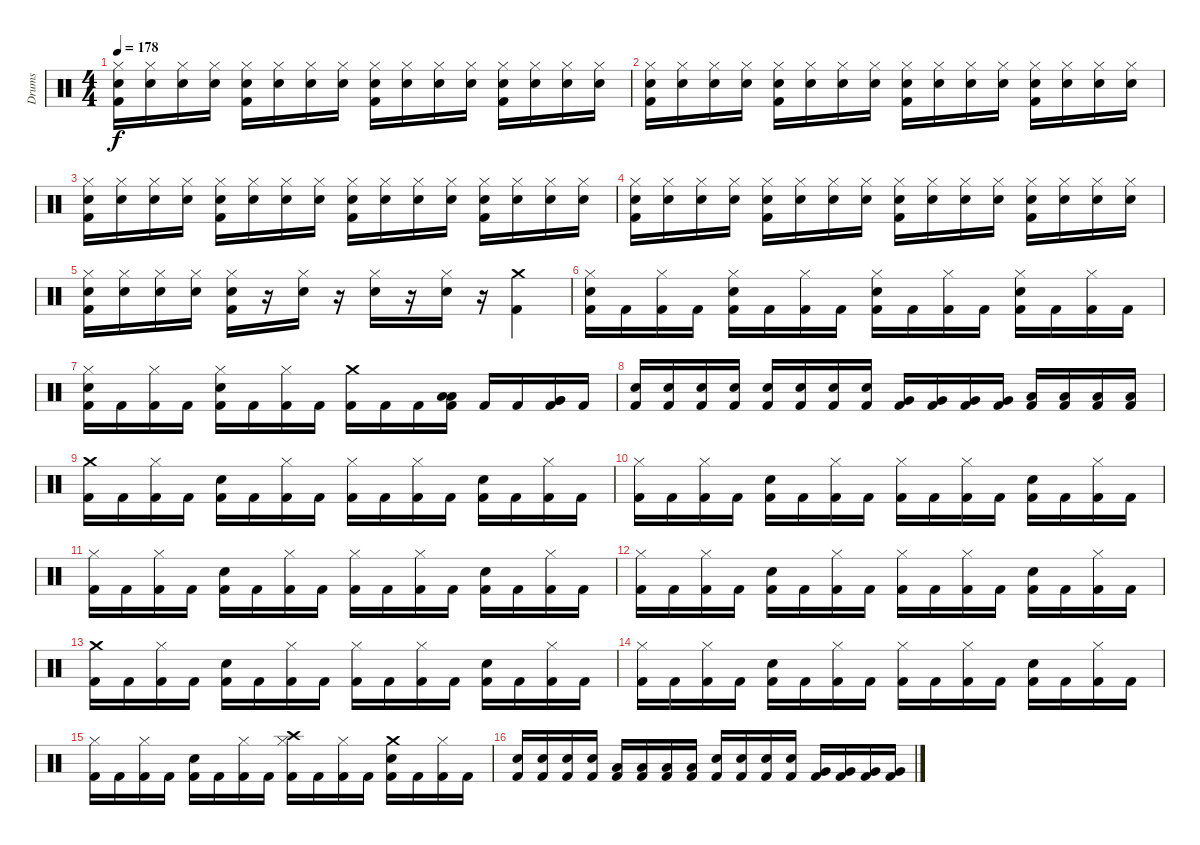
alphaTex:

\track ("Drums" "Drums") {instrument percussion}
\staff {score}
\articulation defaults
\ts (4 4)
\tempo 178
\clef neutral
\ks c
("Hi-Hat (closed)" "Electric Snare (hit)" "Kick (hit) 2").16{dy f} ("Hi-Hat (closed)" "Electric Snare (hit)").16 ("Hi-Hat (closed)" "Electric Snare (hit)").16 ("Hi-Hat (closed)" "Electric Snare (hit)").16 ("Hi-Hat (closed)" "Electric Snare (hit)" "Kick (hit) 2").16 ("Hi-Hat (closed)" "Electric Snare (hit)").16 ("Hi-Hat (closed)" "Electric Snare (hit)").16 ("Hi-Hat (closed)" "Electric Snare (hit)").16 ("Hi-Hat (closed)" "Electric Snare (hit)" "Kick (hit) 2").16 ("Hi-Hat (closed)" "Electric Snare (hit)").16 ("Hi-Hat (closed)" "Electric Snare (hit)").16 ("Hi-Hat (closed)" "Electric Snare (hit)").16 ("Hi-Hat (closed)" "Electric Snare (hit)" "Kick (hit) 2").16 ("Hi-Hat (closed)" "Electric Snare (hit)").16 ("Hi-Hat (closed)" "Electric Snare (hit)").16 ("Hi-Hat (closed)" "Electric Snare (hit)").16 |
("Hi-Hat (closed)" "Electric Snare (hit)" "Kick (hit) 2").16 ("Hi-Hat (closed)" "Electric Snare (hit)").16 ("Hi-Hat (closed)" "Electric Snare (hit)").16 ("Hi-Hat (closed)" "Electric Snare (hit)").16 ("Hi-Hat (closed)" "Electric Snare (hit)" "Kick (hit) 2").16 ("Hi-Hat (closed)" "Electric Snare (hit)").16 ("Hi-Hat (closed)" "Electric Snare (hit)").16 ("Hi-Hat (closed)" "Electric Snare (hit)").16 ("Hi-Hat (closed)" "Electric Snare (hit)" "Kick (hit) 2").16 ("Hi-Hat (closed)" "Electric Snare (hit)").16 ("Hi-Hat (closed)" "Electric Snare (hit)").16 ("Hi-Hat (closed)" "Electric Snare (hit)").16 ("Hi-Hat (closed)" "Electric Snare (hit)" "Kick (hit) 2").16 ("Hi-Hat (closed)" "Electric Snare (hit)").16 ("Hi-Hat (closed)" "Electric Snare (hit)").16 ("Hi-Hat (closed)" "Electric Snare (hit)").16 |
("Hi-Hat (closed)" "Electric Snare (hit)" "Kick (hit) 2").16 ("Hi-Hat (closed)" "Electric Snare (hit)").16 ("Hi-Hat (closed)" "Electric Snare (hit)").16 ("Hi-Hat (closed)" "Electric Snare (hit)").16 ("Hi-Hat (closed)" "Electric Snare (hit)" "Kick (hit) 2").16 ("Hi-Hat (closed)" "Electric Snare (hit)").16 ("Hi-Hat (closed)" "Electric Snare (hit)").16 ("Hi-Hat (closed)" "Electric Snare (hit)").16 ("Hi-Hat (closed)" "Electric Snare (hit)" "Kick (hit) 2").16 ("Hi-Hat (closed)" "Electric Snare (hit)").16 ("Hi-Hat (closed)" "Electric Snare (hit)").16 ("Hi-Hat (closed)" "Electric Snare (hit)").16 ("Hi-Hat (closed)" "Electric Snare (hit)" "Kick (hit) 2").16 ("Hi-Hat (closed)" "Electric Snare (hit)").16 ("Hi-Hat (closed)" "Electric Snare (hit)").16 ("Hi-Hat (closed)" "Electric Snare (hit)").16 |
("Hi-Hat (closed)" "Electric Snare (hit)" "Kick (hit) 2").16 ("Hi-Hat (closed)" "Electric Snare (hit)").16 ("Hi-Hat (closed)" "Electric Snare (hit)").16 ("Hi-Hat (closed)" "Electric Snare (hit)").16 ("Hi-Hat (closed)" "Electric Snare (hit)" "Kick (hit) 2").16 ("Hi-Hat (closed)" "Electric Snare (hit)").16 ("Hi-Hat (closed)" "Electric Snare (hit)").16 ("Hi-Hat (closed)" "Electric Snare (hit)").16 ("Hi-Hat (closed)" "Electric Snare (hit)" "Kick (hit) 2").16 ("Hi-Hat (closed)" "Electric Snare (hit)").16 ("Hi-Hat (closed)" "Electric Snare (hit)").16 ("Hi-Hat (closed)" "Electric Snare (hit)").16 ("Hi-Hat (closed)" "Electric Snare (hit)" "Kick (hit) 2").16 ("Hi-Hat (closed)" "Electric Snare (hit)").16 ("Hi-Hat (closed)" "Electric Snare (hit)").16 ("Hi-Hat (closed)" "Electric Snare (hit)").16 |
("Hi-Hat (closed)" "Electric Snare (hit)" "Kick (hit) 2").16 ("Hi-Hat (closed)" "Electric Snare (hit)").16 ("Hi-Hat (closed)" "Electric Snare (hit)").16 ("Hi-Hat (closed)" "Electric Snare (hit)").16 ("Hi-Hat (closed)" "Electric Snare (hit)" "Kick (hit) 2").16 r.16 ("Hi-Hat (closed)" "Electric Snare (hit)").16 r.16 ("Hi-Hat (closed)" "Electric Snare (hit)").16 r.16 ("Hi-Hat (closed)" "Electric Snare (hit)").16 r.16 ("Crash medium (hit)" "Kick (hit) 2").4 |
("Hi-Hat (closed)" "Electric Snare (hit)" "Kick (hit) 2").16 "Kick (hit) 2".16 ("Hi-Hat (closed)" "Kick (hit) 2").16 "Kick (hit) 2".16 ("Hi-Hat (closed)" "Electric Snare (hit)" "Kick (hit) 2").16 "Kick (hit) 2".16 ("Hi-Hat (closed)" "Kick (hit) 2").16 "Kick (hit) 2".16 ("Hi-Hat (closed)" "Electric Snare (hit)" "Kick (hit) 2").16 "Kick (hit) 2".16 ("Hi-Hat (closed)" "Kick (hit) 2").16 "Kick (hit) 2".16 ("Hi-Hat (closed)" "Electric Snare (hit)" "Kick (hit) 2").16 "Kick (hit) 2".16 ("Hi-Hat (closed)" "Kick (hit) 2").16 "Kick (hit) 2".16 |
("Hi-Hat (closed)" "Electric Snare (hit)" "Kick (hit) 2").16 "Kick (hit) 2".16 ("Hi-Hat (closed)" "Kick (hit) 2").16 "Kick (hit) 2".16 ("Hi-Hat (closed)" "Electric Snare (hit)" "Kick (hit) 2").16 "Kick (hit) 2".16 ("Hi-Hat (closed)" "Kick (hit) 2").16 "Kick (hit) 2".16 ("Crash medium (hit)" "Kick (hit) 2").16 "Kick (hit) 2".16 "Kick (hit) 2".16 ("Low Tom (hit)" "Low Tom (hit)" "Kick (hit) 2").16 "Kick (hit) 2".16 "Kick (hit) 2".16 ("Very Low Tom (hit)" "Very Low Tom (hit)" "Kick (hit) 2").16 "Kick (hit) 2".16 |
("Electric Snare (hit)" "Kick (hit) 2").16 ("Electric Snare (hit)" "Kick (hit) 2").16 ("Electric Snare (hit)" "Kick (hit) 2").16 ("Electric Snare (hit)" "Kick (hit) 2").16 ("Electric Snare (hit)" "Kick (hit) 2").16 ("Electric Snare (hit)" "Kick (hit) 2").16 ("Electric Snare (hit)" "Kick (hit) 2").16 ("Electric Snare (hit)" "Kick (hit) 2").16 ("Very Low Tom (hit)" "Kick (hit) 2").16 ("Very Low Tom (hit)" "Kick (hit) 2").16 ("Very Low Tom (hit)" "Kick (hit) 2").16 ("Very Low Tom (hit)" "Kick (hit) 2").16 ("Low Floor Tom (hit)" "Kick (hit) 2").16 ("Low Floor Tom (hit)" "Kick (hit) 2").16 ("Low Floor Tom (hit)" "Kick (hit) 2").16 ("Low Floor Tom (hit)" "Kick (hit) 2").16 |
("Crash medium (hit)" "Kick (hit) 2").16 "Kick (hit) 2".16 ("Hi-Hat (closed)" "Kick (hit) 2").16 "Kick (hit) 2".16 ("Electric Snare (hit)" "Kick (hit) 2").16 "Kick (hit) 2".16 ("Hi-Hat (closed)" "Kick (hit) 2").16 "Kick (hit) 2".16 ("Hi-Hat (closed)" "Kick (hit) 2").16 "Kick (hit) 2".16 ("Hi-Hat (closed)" "Kick (hit) 2").16 "Kick (hit) 2".16 ("Electric Snare (hit)" "Kick (hit) 2").16 "Kick (hit) 2".16 ("Hi-Hat (closed)" "Kick (hit) 2").16 "Kick (hit) 2".16 |
("Hi-Hat (closed)" "Kick (hit) 2").16 "Kick (hit) 2".16 ("Hi-Hat (closed)" "Kick (hit) 2").16 "Kick (hit) 2".16 ("Electric Snare (hit)" "Kick (hit) 2").16 "Kick (hit) 2".16 ("Hi-Hat (closed)" "Kick (hit) 2").16 "Kick (hit) 2".16 ("Hi-Hat (closed)" "Kick (hit) 2").16 "Kick (hit) 2".16 ("Hi-Hat (closed)" "Kick (hit) 2").16 "Kick (hit) 2".16 ("Electric Snare (hit)" "Kick (hit) 2").16 "Kick (hit) 2".16 ("Hi-Hat (closed)" "Kick (hit) 2").16 "Kick (hit) 2".16 |
("Hi-Hat (closed)" "Kick (hit) 2").16 "Kick (hit) 2".16 ("Hi-Hat (closed)" "Kick (hit) 2").16 "Kick (hit) 2".16 ("Electric Snare (hit)" "Kick (hit) 2").16 "Kick (hit) 2".16 ("Hi-Hat (closed)" "Kick (hit) 2").16 "Kick (hit) 2".16 ("Hi-Hat (closed)" "Kick (hit) 2").16 "Kick (hit) 2".16 ("Hi-Hat (closed)" "Kick (hit) 2").16 "Kick (hit) 2".16 ("Electric Snare (hit)" "Kick (hit) 2").16 "Kick (hit) 2".16 ("Hi-Hat (closed)" "Kick (hit) 2").16 "Kick (hit) 2".16 |
("Hi-Hat (closed)" "Kick (hit) 2").16 "Kick (hit) 2".16 ("Hi-Hat (closed)" "Kick (hit) 2").16 "Kick (hit) 2".16 ("Electric Snare (hit)" "Kick (hit) 2").16 "Kick (hit) 2".16 ("Hi-Hat (closed)" "Kick (hit) 2").16 "Kick (hit) 2".16 ("Hi-Hat (closed)" "Kick (hit) 2").16 "Kick (hit) 2".16 ("Hi-Hat (closed)" "Kick (hit) 2").16 "Kick (hit) 2".16 ("Electric Snare (hit)" "Kick (hit) 2").16 "Kick (hit) 2".16 ("Hi-Hat (closed)" "Kick (hit) 2").16 "Kick (hit) 2".16 |
("Crash medium (hit)" "Kick (hit) 2").16 "Kick (hit) 2".16 ("Hi-Hat (closed)" "Kick (hit) 2").16 "Kick (hit) 2".16 ("Electric Snare (hit)" "Kick (hit) 2").16 "Kick (hit) 2".16 ("Hi-Hat (closed)" "Kick (hit) 2").16 "Kick (hit) 2".16 ("Hi-Hat (closed)" "Kick (hit) 2").16 "Kick (hit) 2".16 ("Hi-Hat (closed)" "Kick (hit) 2").16 "Kick (hit) 2".16 ("Electric Snare (hit)" "Kick (hit) 2").16 "Kick (hit) 2".16 ("Hi-Hat (closed)" "Kick (hit) 2").16 "Kick (hit) 2".16 |
("Hi-Hat (closed)" "Kick (hit) 2").16 "Kick (hit) 2".16 ("Hi-Hat (closed)" "Kick (hit) 2").16 "Kick (hit) 2".16 ("Electric Snare (hit)" "Kick (hit) 2").16 "Kick (hit) 2".16 ("Hi-Hat (closed)" "Kick (hit) 2").16 "Kick (hit) 2".16 ("Hi-Hat (closed)" "Kick (hit) 2").16 "Kick (hit) 2".16 ("Hi-Hat (closed)" "Kick (hit) 2").16 "Kick (hit) 2".16 ("Electric Snare (hit)" "Kick (hit) 2").16 "Kick (hit) 2".16 ("Hi-Hat (closed)" "Kick (hit) 2").16 "Kick (hit) 2".16 |
("Hi-Hat (closed)" "Kick (hit) 2").16 "Kick (hit) 2".16 ("Hi-Hat (closed)" "Kick (hit) 2").16 "Kick (hit) 2".16 ("Electric Snare (hit)" "Kick (hit) 2").16 "Kick (hit) 2".16 ("Hi-Hat (closed)" "Kick (hit) 2").16 "Kick (hit) 2".16 ("Crash high (hit)" "Hi-Hat (closed)" "Kick (hit) 2").16 "Kick (hit) 2".16 ("Hi-Hat (closed)" "Kick (hit) 2").16 "Kick (hit) 2".16 ("Crash medium (hit)" "Electric Snare (hit)" "Kick (hit) 2").16 "Kick (hit) 2".16 ("Hi-Hat (closed)" "Kick (hit) 2").16 "Kick (hit) 2".16 |
("Electric Snare (hit)" "Kick (hit) 2").16 ("Electric Snare (hit)" "Kick (hit) 2").16 ("Electric Snare (hit)" "Kick (hit) 2").16 ("Electric Snare (hit)" "Kick (hit) 2").16 ("Low Tom (hit)" "Kick (hit) 2").16 ("Low Tom (hit)" "Kick (hit) 2").16 ("Low Tom (hit)" "Kick (hit) 2").16 ("Low Tom (hit)" "Kick (hit) 2").16 ("Electric Snare (hit)" "Kick (hit) 2").16 ("Electric Snare (hit)" "Kick (hit) 2").16 ("Electric Snare (hit)" "Kick (hit) 2").16 ("Electric Snare (hit)" "Kick (hit) 2").16 ("Very Low Tom (hit)" "Kick (hit) 2").16 ("Very Low Tom (hit)" "Kick (hit) 2").16 ("Very Low Tom (hit)" "Kick (hit) 2").16 ("Very Low Tom (hit)" "Kick (hit) 2").16
